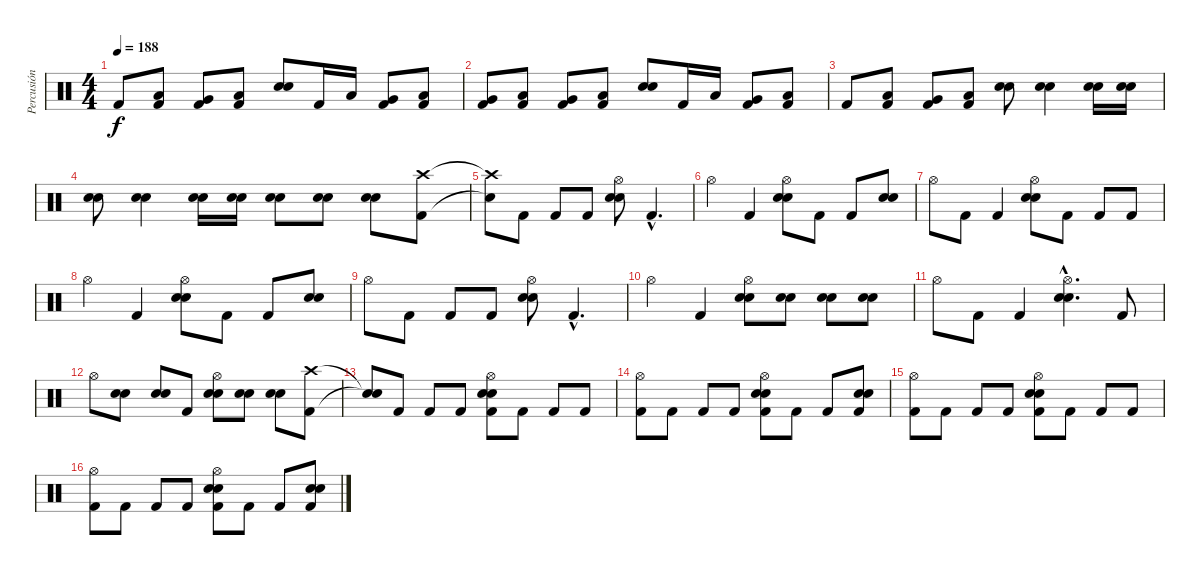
\track ("Percusión" "Percusión") {instrument percussion}
\staff {score}
\articulation defaults
\ts (4 4)
\tempo 188
\clef neutral
\ks c "Kick (hit) 2".8{dy f}
("Low Tom (hit)" "Kick (hit) 2").8 ("Very Low Tom (hit)" "Kick (hit) 2").8 ("Low Floor Tom (hit)" "Kick (hit) 2").8 ("Electric Snare (hit)" "Snare (hit) 2").8 "Kick (hit) 2".16 "Low Tom (hit)".16 ("Very Low Tom (hit)" "Kick (hit) 2").8 ("Low Floor Tom (hit)" "Kick (hit) 2").8 |
("Very Low Tom (hit)" "Kick (hit) 2").8 ("Low Tom (hit)" "Kick (hit) 2").8 ("Very Low Tom (hit)" "Kick (hit) 2").8 ("Low Floor Tom (hit)" "Kick (hit) 2").8 ("Electric Snare (hit)" "Snare (hit) 2").8 "Kick (hit) 2".16 "Low Tom (hit)".16 ("Very Low Tom (hit)" "Kick (hit) 2").8 ("Low Floor Tom (hit)" "Kick (hit) 2").8 |
"Kick (hit) 2".8 ("Low Tom (hit)" "Kick (hit) 2").8 ("Very Low Tom (hit)" "Kick (hit) 2").8 ("Low Floor Tom (hit)" "Kick (hit) 2").8 ("Electric Snare (hit)" "Snare (hit) 2").8 ("Electric Snare (hit)" "Snare (hit) 2").4 ("Electric Snare (hit)" "Snare (hit) 2").16 ("Electric Snare (hit)" "Snare (hit) 2").16 |
("Electric Snare (hit)" "Snare (hit) 2").8 ("Electric Snare (hit)" "Snare (hit) 2").4 ("Electric Snare (hit)" "Snare (hit) 2").16 ("Electric Snare (hit)" "Snare (hit) 2").16 ("Electric Snare (hit)" "Snare (hit) 2").8 ("Electric Snare (hit)" "Snare (hit) 2").8 ("Electric Snare (hit)" "Snare (hit) 2").8 ("Crash high (hit)" "Kick (hit) 2").8 |
("Crash high (hit)"{t} "Snare (hit)"{t}).8 "Kick (hit) 2".8 "Kick (hit) 2".8 "Kick (hit) 2".8 ("Hi-Hat (open)" "Electric Snare (hit)" "Snare (hit) 2").8 "Kick (hit) 2"{hac}.4{d} |
"Hi-Hat (open)".4 "Kick (hit) 2".4 ("Hi-Hat (open)" "Electric Snare (hit)" "Snare (hit) 2").8 "Kick (hit) 2".8 "Kick (hit) 2".8 ("Electric Snare (hit)" "Snare (hit) 2").8 |
"Hi-Hat (open)".8 "Kick (hit) 2".8 "Kick (hit) 2".4 ("Hi-Hat (open)" "Electric Snare (hit)" "Snare (hit) 2").8 "Kick (hit) 2".8 "Kick (hit) 2".8 "Kick (hit) 2".8 |
"Hi-Hat (open)".4 "Kick (hit) 2".4 ("Hi-Hat (open)" "Electric Snare (hit)" "Snare (hit) 2").8 "Kick (hit) 2".8 "Kick (hit) 2".8 ("Electric Snare (hit)" "Snare (hit) 2").8 |
"Hi-Hat (open)".8 "Kick (hit) 2".8 "Kick (hit) 2".8 "Kick (hit) 2".8 ("Hi-Hat (open)" "Electric Snare (hit)" "Snare (hit) 2").8 "Kick (hit) 2"{hac}.4{d} |
"Hi-Hat (open)".4 "Kick (hit) 2".4 ("Hi-Hat (open)" "Electric Snare (hit)" "Snare (hit) 2").8 ("Electric Snare (hit)" "Snare (hit) 2").8 ("Electric Snare (hit)" "Snare (hit) 2").8 ("Electric Snare (hit)" "Snare (hit) 2").8 |
"Hi-Hat (open)".8 "Kick (hit) 2".8 "Kick (hit) 2".4 ("Hi-Hat (open)"{hac} "Electric Snare (hit)"{hac} "Snare (hit) 2"{hac}).4{d} "Kick (hit) 2".8 |
"Hi-Hat (open)".8 ("Electric Snare (hit)" "Snare (hit) 2").8 ("Electric Snare (hit)" "Snare (hit) 2").8 "Kick (hit) 2".8 ("Hi-Hat (open)" "Electric Snare (hit)" "Snare (hit) 2").8 ("Electric Snare (hit)" "Snare (hit) 2").8 ("Electric Snare (hit)" "Snare (hit) 2").8 ("Crash high (hit)" "Kick (hit) 2").8 |
("Snare (hit)"{t} "Snare (hit)"{t}).8 "Kick (hit) 2".8 "Kick (hit) 2".8 "Kick (hit) 2".8 ("Hi-Hat (open)" "Electric Snare (hit)" "Snare (hit) 2" "Kick (hit) 2").8 "Kick (hit) 2".8 "Kick (hit) 2".8 "Kick (hit) 2".8 |
("Hi-Hat (open)" "Kick (hit) 2").8 "Kick (hit) 2".8 "Kick (hit) 2".8 "Kick (hit) 2".8 ("Hi-Hat (open)" "Electric Snare (hit)" "Snare (hit) 2" "Kick (hit) 2").8 "Kick (hit) 2".8 "Kick (hit) 2".8 ("Electric Snare (hit)" "Snare (hit) 2" "Kick (hit) 2").8 |
("Hi-Hat (open)" "Kick (hit) 2").8 "Kick (hit) 2".8 "Kick (hit) 2".8 "Kick (hit) 2".8 ("Hi-Hat (open)" "Electric Snare (hit)" "Snare (hit) 2" "Kick (hit) 2").8 "Kick (hit) 2".8 "Kick (hit) 2".8 "Kick (hit) 2".8 |
("Hi-Hat (open)" "Kick (hit) 2").8 "Kick (hit) 2".8 "Kick (hit) 2".8 "Kick (hit) 2".8 ("Hi-Hat (open)" "Electric Snare (hit)" "Snare (hit) 2" "Kick (hit) 2").8 "Kick (hit) 2".8 "Kick (hit) 2".8 ("Electric Snare (hit)" "Snare (hit) 2" "Kick (hit) 2").8
